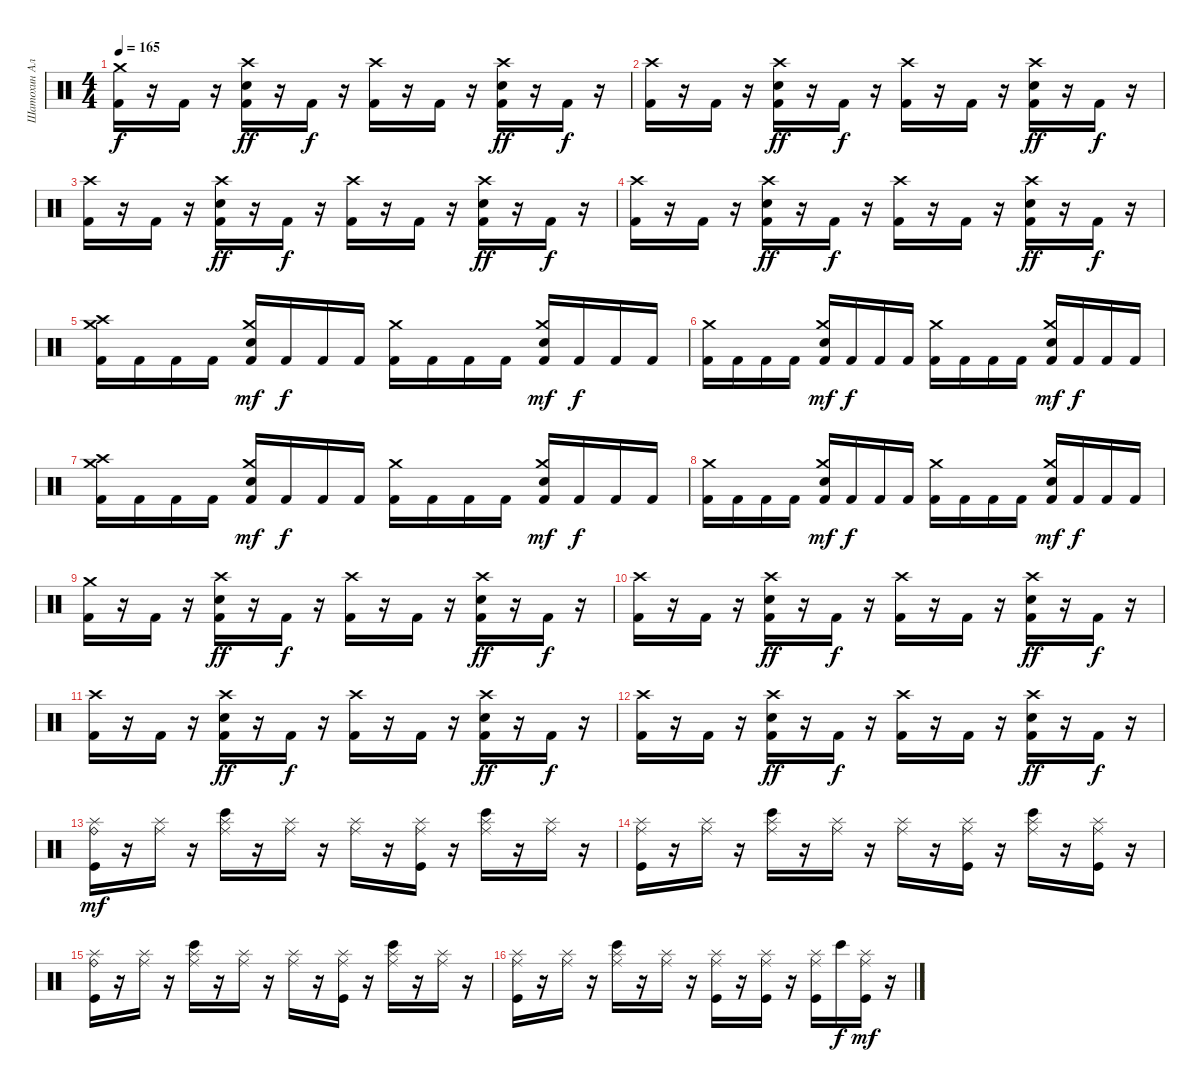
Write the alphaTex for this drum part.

\track ("Шатохин Алексей" "Шатохин Ал") {instrument percussion}
\staff {score}
\articulation defaults
\ts (4 4)
\tempo 165
\clef neutral
\ks c
("Kick (hit) 2" "Crash medium (hit)").16{dy f} r.16 "Kick (hit) 2".16 r.16 ("Kick (hit) 2" "Electric Snare (hit)" "Crash high (hit)").16{dy ff} r.16 "Kick (hit) 2".16{dy f} r.16 ("Kick (hit) 2" "Crash high (hit)").16 r.16 "Kick (hit) 2".16 r.16 ("Kick (hit) 2" "Electric Snare (hit)" "Crash high (hit)").16{dy ff} r.16 "Kick (hit) 2".16{dy f} r.16 |
("Kick (hit) 2" "Crash high (hit)").16 r.16 "Kick (hit) 2".16 r.16 ("Kick (hit) 2" "Electric Snare (hit)" "Crash high (hit)").16{dy ff} r.16 "Kick (hit) 2".16{dy f} r.16 ("Kick (hit) 2" "Crash high (hit)").16 r.16 "Kick (hit) 2".16 r.16 ("Kick (hit) 2" "Electric Snare (hit)" "Crash high (hit)").16{dy ff} r.16 "Kick (hit) 2".16{dy f} r.16 |
("Kick (hit) 2" "Crash high (hit)").16 r.16 "Kick (hit) 2".16 r.16 ("Kick (hit) 2" "Electric Snare (hit)" "Crash high (hit)").16{dy ff} r.16 "Kick (hit) 2".16{dy f} r.16 ("Kick (hit) 2" "Crash high (hit)").16 r.16 "Kick (hit) 2".16 r.16 ("Kick (hit) 2" "Electric Snare (hit)" "Crash high (hit)").16{dy ff} r.16 "Kick (hit) 2".16{dy f} r.16 |
("Kick (hit) 2" "Crash high (hit)").16 r.16 "Kick (hit) 2".16 r.16 ("Kick (hit) 2" "Electric Snare (hit)" "Crash high (hit)").16{dy ff} r.16 "Kick (hit) 2".16{dy f} r.16 ("Kick (hit) 2" "Crash high (hit)").16 r.16 "Kick (hit) 2".16 r.16 ("Kick (hit) 2" "Electric Snare (hit)" "Crash high (hit)").16{dy ff} r.16 "Kick (hit) 2".16{dy f} r.16 |
("Crash medium (hit)" "Crash high (hit)" "Kick (hit) 2").16 "Kick (hit) 2".16 "Kick (hit) 2".16 "Kick (hit) 2".16 ("Crash medium (hit)" "Electric Snare (hit)" "Kick (hit) 2").16{dy mf} "Kick (hit) 2".16{dy f} "Kick (hit) 2".16 "Kick (hit) 2".16 ("Crash medium (hit)" "Kick (hit) 2").16 "Kick (hit) 2".16 "Kick (hit) 2".16 "Kick (hit) 2".16 ("Crash medium (hit)" "Electric Snare (hit)" "Kick (hit) 2").16{dy mf} "Kick (hit) 2".16{dy f} "Kick (hit) 2".16 "Kick (hit) 2".16 |
("Crash medium (hit)" "Kick (hit) 2").16 "Kick (hit) 2".16 "Kick (hit) 2".16 "Kick (hit) 2".16 ("Crash medium (hit)" "Electric Snare (hit)" "Kick (hit) 2").16{dy mf} "Kick (hit) 2".16{dy f} "Kick (hit) 2".16 "Kick (hit) 2".16 ("Crash medium (hit)" "Kick (hit) 2").16 "Kick (hit) 2".16 "Kick (hit) 2".16 "Kick (hit) 2".16 ("Crash medium (hit)" "Electric Snare (hit)" "Kick (hit) 2").16{dy mf} "Kick (hit) 2".16{dy f} "Kick (hit) 2".16 "Kick (hit) 2".16 |
("Crash medium (hit)" "Crash high (hit)" "Kick (hit) 2").16 "Kick (hit) 2".16 "Kick (hit) 2".16 "Kick (hit) 2".16 ("Crash medium (hit)" "Electric Snare (hit)" "Kick (hit) 2").16{dy mf} "Kick (hit) 2".16{dy f} "Kick (hit) 2".16 "Kick (hit) 2".16 ("Crash medium (hit)" "Kick (hit) 2").16 "Kick (hit) 2".16 "Kick (hit) 2".16 "Kick (hit) 2".16 ("Crash medium (hit)" "Electric Snare (hit)" "Kick (hit) 2").16{dy mf} "Kick (hit) 2".16{dy f} "Kick (hit) 2".16 "Kick (hit) 2".16 |
("Crash medium (hit)" "Kick (hit) 2").16 "Kick (hit) 2".16 "Kick (hit) 2".16 "Kick (hit) 2".16 ("Crash medium (hit)" "Electric Snare (hit)" "Kick (hit) 2").16{dy mf} "Kick (hit) 2".16{dy f} "Kick (hit) 2".16 "Kick (hit) 2".16 ("Crash medium (hit)" "Kick (hit) 2").16 "Kick (hit) 2".16 "Kick (hit) 2".16 "Kick (hit) 2".16 ("Crash medium (hit)" "Electric Snare (hit)" "Kick (hit) 2").16{dy mf} "Kick (hit) 2".16{dy f} "Kick (hit) 2".16 "Kick (hit) 2".16 |
("Kick (hit) 2" "Crash medium (hit)").16 r.16 "Kick (hit) 2".16 r.16 ("Kick (hit) 2" "Electric Snare (hit)" "Crash high (hit)").16{dy ff} r.16 "Kick (hit) 2".16{dy f} r.16 ("Kick (hit) 2" "Crash high (hit)").16 r.16 "Kick (hit) 2".16 r.16 ("Kick (hit) 2" "Electric Snare (hit)" "Crash high (hit)").16{dy ff} r.16 "Kick (hit) 2".16{dy f} r.16 |
("Kick (hit) 2" "Crash high (hit)").16 r.16 "Kick (hit) 2".16 r.16 ("Kick (hit) 2" "Electric Snare (hit)" "Crash high (hit)").16{dy ff} r.16 "Kick (hit) 2".16{dy f} r.16 ("Kick (hit) 2" "Crash high (hit)").16 r.16 "Kick (hit) 2".16 r.16 ("Kick (hit) 2" "Electric Snare (hit)" "Crash high (hit)").16{dy ff} r.16 "Kick (hit) 2".16{dy f} r.16 |
("Kick (hit) 2" "Crash high (hit)").16 r.16 "Kick (hit) 2".16 r.16 ("Kick (hit) 2" "Electric Snare (hit)" "Crash high (hit)").16{dy ff} r.16 "Kick (hit) 2".16{dy f} r.16 ("Kick (hit) 2" "Crash high (hit)").16 r.16 "Kick (hit) 2".16 r.16 ("Kick (hit) 2" "Electric Snare (hit)" "Crash high (hit)").16{dy ff} r.16 "Kick (hit) 2".16{dy f} r.16 |
("Kick (hit) 2" "Crash high (hit)").16 r.16 "Kick (hit) 2".16 r.16 ("Kick (hit) 2" "Electric Snare (hit)" "Crash high (hit)").16{dy ff} r.16 "Kick (hit) 2".16{dy f} r.16 ("Kick (hit) 2" "Crash high (hit)").16 r.16 "Kick (hit) 2".16 r.16 ("Kick (hit) 2" "Electric Snare (hit)" "Crash high (hit)").16{dy ff} r.16 "Kick (hit) 2".16{dy f} r.16 |
("Kick (hit)" "Ride (bell)" "Splash (hit)").16{dy mf} r.16 ("Ride (middle)" "Splash (hit)").16 r.16 ("Bongo High (hit)" "Ride (middle)" "Splash (hit)").16 r.16 ("Ride (middle)" "Splash (hit)").16 r.16 ("Ride (middle)" "Splash (hit)").16 r.16 ("Kick (hit)" "Ride (middle)" "Splash (hit)").16 r.16 ("Bongo High (hit)" "Ride (middle)" "Splash (hit)").16 r.16 ("Ride (middle)" "Splash (hit)").16 r.16 |
("Kick (hit)" "Ride (middle)" "Splash (hit)").16 r.16 ("Ride (middle)" "Splash (hit)").16 r.16 ("Bongo High (hit)" "Ride (middle)" "Splash (hit)").16 r.16 ("Ride (middle)" "Splash (hit)").16 r.16 ("Ride (middle)" "Splash (hit)").16 r.16 ("Kick (hit)" "Ride (middle)" "Splash (hit)").16 r.16 ("Bongo High (hit)" "Ride (middle)" "Splash (hit)").16 r.16 ("Kick (hit)" "Ride (middle)" "Splash (hit)").16 r.16 |
("Kick (hit)" "Ride (bell)" "Splash (hit)").16 r.16 ("Ride (middle)" "Splash (hit)").16 r.16 ("Bongo High (hit)" "Ride (middle)" "Splash (hit)").16 r.16 ("Ride (middle)" "Splash (hit)").16 r.16 ("Ride (middle)" "Splash (hit)").16 r.16 ("Kick (hit)" "Ride (middle)" "Splash (hit)").16 r.16 ("Bongo High (hit)" "Ride (middle)" "Splash (hit)").16 r.16 ("Ride (middle)" "Splash (hit)").16 r.16 |
("Kick (hit)" "Ride (middle)" "Splash (hit)").16 r.16 ("Ride (middle)" "Splash (hit)").16 r.16 ("Bongo High (hit)" "Ride (middle)" "Splash (hit)").16 r.16 ("Ride (middle)" "Splash (hit)").16 r.16 ("Kick (hit)" "Ride (middle)" "Splash (hit)").16 r.16 ("Kick (hit)" "Ride (middle)" "Splash (hit)").16 r.16 ("Kick (hit)" "Ride (middle)" "Splash (hit)").16 "Bongo High (hit)".16{dy f} ("Kick (hit)" "Ride (middle)" "Splash (hit)").16{dy mf} r.16
